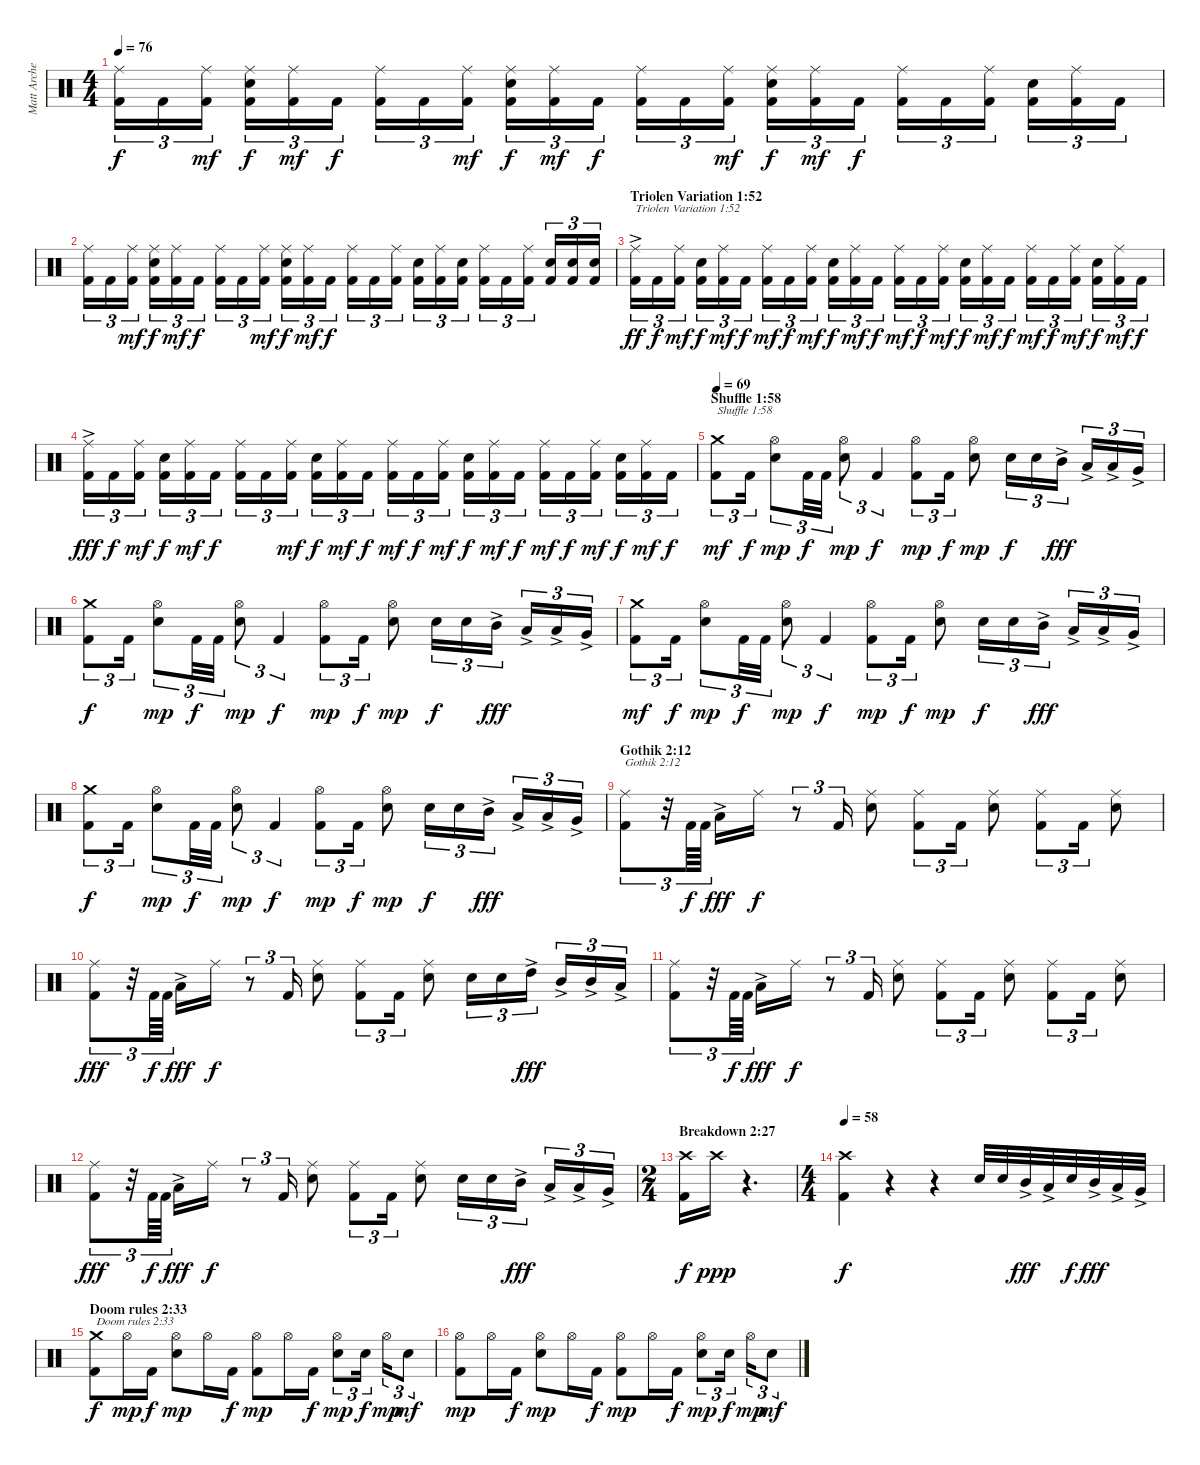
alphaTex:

\track ("Matt Archer" "Matt Arche") {instrument percussion}
\staff {score}
\articulation defaults
\ts (4 4)
\tempo 76
\clef neutral
\ks c
("Kick (hit) 2" "Ride (middle)").16{tu (3 2) dy f} "Kick (hit) 2".16{tu (3 2)} ("Kick (hit) 2" "Ride (middle)").16{tu (3 2) dy mf} ("Kick (hit) 2" "Electric Snare (hit)" "Ride (middle)").16{tu (3 2) dy f} ("Kick (hit) 2" "Ride (middle)").16{tu (3 2) dy mf} "Kick (hit) 2".16{tu (3 2) dy f} ("Kick (hit) 2" "Ride (middle)").16{tu (3 2)} "Kick (hit) 2".16{tu (3 2)} ("Kick (hit) 2" "Ride (middle)").16{tu (3 2) dy mf} ("Kick (hit) 2" "Electric Snare (hit)" "Ride (middle)").16{tu (3 2) dy f} ("Kick (hit) 2" "Ride (middle)").16{tu (3 2) dy mf} "Kick (hit) 2".16{tu (3 2) dy f} ("Kick (hit) 2" "Ride (middle)").16{tu (3 2)} "Kick (hit) 2".16{tu (3 2)} ("Kick (hit) 2" "Ride (middle)").16{tu (3 2) dy mf} ("Kick (hit) 2" "Electric Snare (hit)" "Ride (middle)").16{tu (3 2) dy f} ("Kick (hit) 2" "Ride (middle)").16{tu (3 2) dy mf} "Kick (hit) 2".16{tu (3 2) dy f} ("Kick (hit) 2" "Ride (middle)").16{tu (3 2)} "Kick (hit) 2".16{tu (3 2)} ("Kick (hit) 2" "Ride (middle)").16{tu (3 2)} ("Kick (hit) 2" "Electric Snare (hit)").16{tu (3 2)} ("Kick (hit) 2" "Ride (middle)").16{tu (3 2)} "Kick (hit) 2".16{tu (3 2)} |
("Kick (hit) 2" "Ride (middle)").16{tu (3 2)} "Kick (hit) 2".16{tu (3 2)} ("Kick (hit) 2" "Ride (middle)").16{tu (3 2) dy mf} ("Kick (hit) 2" "Electric Snare (hit)" "Ride (middle)").16{tu (3 2) dy f} ("Kick (hit) 2" "Ride (middle)").16{tu (3 2) dy mf} "Kick (hit) 2".16{tu (3 2) dy f} ("Kick (hit) 2" "Ride (middle)").16{tu (3 2)} "Kick (hit) 2".16{tu (3 2)} ("Kick (hit) 2" "Ride (middle)").16{tu (3 2) dy mf} ("Kick (hit) 2" "Electric Snare (hit)" "Ride (middle)").16{tu (3 2) dy f} ("Kick (hit) 2" "Ride (middle)").16{tu (3 2) dy mf} "Kick (hit) 2".16{tu (3 2) dy f} ("Kick (hit) 2" "Ride (middle)").16{tu (3 2)} "Kick (hit) 2".16{tu (3 2)} ("Kick (hit) 2" "Ride (middle)").16{tu (3 2)} ("Kick (hit) 2" "Electric Snare (hit)").16{tu (3 2)} ("Kick (hit) 2" "Ride (middle)").16{tu (3 2)} ("Kick (hit) 2" "Electric Snare (hit)").16{tu (3 2)} ("Kick (hit) 2" "Ride (middle)").16{tu (3 2)} "Kick (hit) 2".16{tu (3 2)} ("Kick (hit) 2" "Ride (middle)").16{tu (3 2)} ("Kick (hit) 2" "Electric Snare (hit)").16{tu (3 2)} ("Kick (hit) 2" "Electric Snare (hit)").16{tu (3 2)} ("Kick (hit) 2" "Electric Snare (hit)").16{tu (3 2)} |
\section ("" "Triolen Variation 1:52")
("Kick (hit) 2" "Ride (middle)"{ac}).16{tu (3 2) txt "Triolen Variation 1:52" dy ff} "Kick (hit) 2".16{tu (3 2) dy f} ("Kick (hit) 2" "Ride (middle)").16{tu (3 2) dy mf} ("Kick (hit) 2" "Electric Snare (hit)").16{tu (3 2) dy f} ("Kick (hit) 2" "Ride (middle)").16{tu (3 2) dy mf} "Kick (hit) 2".16{tu (3 2) dy f} ("Kick (hit) 2" "Ride (middle)").16{tu (3 2) dy mf} "Kick (hit) 2".16{tu (3 2) dy f} ("Kick (hit) 2" "Ride (middle)").16{tu (3 2) dy mf} ("Kick (hit) 2" "Electric Snare (hit)").16{tu (3 2) dy f} ("Kick (hit) 2" "Ride (middle)").16{tu (3 2) dy mf} "Kick (hit) 2".16{tu (3 2) dy f} ("Kick (hit) 2" "Ride (middle)").16{tu (3 2) dy mf} "Kick (hit) 2".16{tu (3 2) dy f} ("Kick (hit) 2" "Ride (middle)").16{tu (3 2) dy mf} ("Kick (hit) 2" "Electric Snare (hit)").16{tu (3 2) dy f} ("Kick (hit) 2" "Ride (middle)").16{tu (3 2) dy mf} "Kick (hit) 2".16{tu (3 2) dy f} ("Kick (hit) 2" "Ride (middle)").16{tu (3 2) dy mf} "Kick (hit) 2".16{tu (3 2) dy f} ("Kick (hit) 2" "Ride (middle)").16{tu (3 2) dy mf} ("Kick (hit) 2" "Electric Snare (hit)").16{tu (3 2) dy f} ("Kick (hit) 2" "Ride (middle)").16{tu (3 2) dy mf} "Kick (hit) 2".16{tu (3 2) dy f} |
("Kick (hit) 2" "Ride (middle)"{ac}).16{tu (3 2) dy fff} "Kick (hit) 2".16{tu (3 2) dy f} ("Kick (hit) 2" "Ride (middle)").16{tu (3 2) dy mf} ("Kick (hit) 2" "Electric Snare (hit)").16{tu (3 2) dy f} ("Kick (hit) 2" "Ride (middle)").16{tu (3 2) dy mf} "Kick (hit) 2".16{tu (3 2) dy f} ("Kick (hit) 2" "Ride (middle)").16{tu (3 2)} "Kick (hit) 2".16{tu (3 2)} ("Kick (hit) 2" "Ride (middle)").16{tu (3 2) dy mf} ("Kick (hit) 2" "Electric Snare (hit)").16{tu (3 2) dy f} ("Kick (hit) 2" "Ride (middle)").16{tu (3 2) dy mf} "Kick (hit) 2".16{tu (3 2) dy f} ("Kick (hit) 2" "Ride (middle)").16{tu (3 2) dy mf} "Kick (hit) 2".16{tu (3 2) dy f} ("Kick (hit) 2" "Ride (middle)").16{tu (3 2) dy mf} ("Kick (hit) 2" "Electric Snare (hit)").16{tu (3 2) dy f} ("Kick (hit) 2" "Ride (middle)").16{tu (3 2) dy mf} "Kick (hit) 2".16{tu (3 2) dy f} ("Kick (hit) 2" "Ride (middle)").16{tu (3 2) dy mf} "Kick (hit) 2".16{tu (3 2) dy f} ("Kick (hit) 2" "Ride (middle)").16{tu (3 2) dy mf} ("Kick (hit) 2" "Electric Snare (hit)").16{tu (3 2) dy f} ("Kick (hit) 2" "Ride (middle)").16{tu (3 2) dy mf} "Kick (hit) 2".16{tu (3 2) dy f} |
\section ("" "Shuffle 1:58")
\tempo 69
("Kick (hit) 2" "Crash medium (hit)").8{tu (3 2) txt "Shuffle 1:58" dy mf} "Kick (hit) 2".16{tu (3 2) dy f} ("Electric Snare (hit)" "Hi-Hat (open)").8{tu (3 2) dy mp} "Kick (hit) 2".32{tu (3 2) dy f} "Kick (hit) 2".32{tu (3 2)} ("Electric Snare (hit)" "Hi-Hat (open)").8{tu (3 2) dy mp} "Kick (hit) 2".4{tu (3 2) dy f} ("Kick (hit) 2" "Hi-Hat (open)").8{tu (3 2) dy mp} "Kick (hit) 2".16{tu (3 2) dy f} ("Electric Snare (hit)" "Hi-Hat (open)").8{dy mp} "Electric Snare (hit)".16{tu (3 2) dy f} "Electric Snare (hit)".16{tu (3 2)} "Mid Tom (hit)"{ac}.16{tu (3 2) dy fff} "Low Tom (hit)"{ac}.16{tu (3 2)} "Low Tom (hit)"{ac}.16{tu (3 2)} "Very Low Tom (hit)"{ac}.16{tu (3 2)} |
("Kick (hit) 2" "Crash medium (hit)").8{tu (3 2) dy f} "Kick (hit) 2".16{tu (3 2)} ("Electric Snare (hit)" "Hi-Hat (open)").8{tu (3 2) dy mp} "Kick (hit) 2".32{tu (3 2) dy f} "Kick (hit) 2".32{tu (3 2)} ("Electric Snare (hit)" "Hi-Hat (open)").8{tu (3 2) dy mp} "Kick (hit) 2".4{tu (3 2) dy f} ("Kick (hit) 2" "Hi-Hat (open)").8{tu (3 2) dy mp} "Kick (hit) 2".16{tu (3 2) dy f} ("Electric Snare (hit)" "Hi-Hat (open)").8{dy mp} "Electric Snare (hit)".16{tu (3 2) dy f} "Electric Snare (hit)".16{tu (3 2)} "Mid Tom (hit)"{ac}.16{tu (3 2) dy fff} "Low Tom (hit)"{ac}.16{tu (3 2)} "Low Tom (hit)"{ac}.16{tu (3 2)} "Very Low Tom (hit)"{ac}.16{tu (3 2)} |
("Kick (hit) 2" "Crash medium (hit)").8{tu (3 2) dy mf} "Kick (hit) 2".16{tu (3 2) dy f} ("Electric Snare (hit)" "Hi-Hat (open)").8{tu (3 2) dy mp} "Kick (hit) 2".32{tu (3 2) dy f} "Kick (hit) 2".32{tu (3 2)} ("Electric Snare (hit)" "Hi-Hat (open)").8{tu (3 2) dy mp} "Kick (hit) 2".4{tu (3 2) dy f} ("Kick (hit) 2" "Hi-Hat (open)").8{tu (3 2) dy mp} "Kick (hit) 2".16{tu (3 2) dy f} ("Electric Snare (hit)" "Hi-Hat (open)").8{dy mp} "Electric Snare (hit)".16{tu (3 2) dy f} "Electric Snare (hit)".16{tu (3 2)} "Mid Tom (hit)"{ac}.16{tu (3 2) dy fff} "Low Tom (hit)"{ac}.16{tu (3 2)} "Low Tom (hit)"{ac}.16{tu (3 2)} "Very Low Tom (hit)"{ac}.16{tu (3 2)} |
("Kick (hit) 2" "Crash medium (hit)").8{tu (3 2) dy f} "Kick (hit) 2".16{tu (3 2)} ("Electric Snare (hit)" "Hi-Hat (open)").8{tu (3 2) dy mp} "Kick (hit) 2".32{tu (3 2) dy f} "Kick (hit) 2".32{tu (3 2)} ("Electric Snare (hit)" "Hi-Hat (open)").8{tu (3 2) dy mp} "Kick (hit) 2".4{tu (3 2) dy f} ("Kick (hit) 2" "Hi-Hat (open)").8{tu (3 2) dy mp} "Kick (hit) 2".16{tu (3 2) dy f} ("Electric Snare (hit)" "Hi-Hat (open)").8{dy mp} "Electric Snare (hit)".16{tu (3 2) dy f} "Electric Snare (hit)".16{tu (3 2)} "Mid Tom (hit)"{ac}.16{tu (3 2) dy fff} "Low Tom (hit)"{ac}.16{tu (3 2)} "Low Tom (hit)"{ac}.16{tu (3 2)} "Very Low Tom (hit)"{ac}.16{tu (3 2)} |
\section ("" "Gothik 2:12")
("Kick (hit) 2" "Ride (middle)").8{tu (3 2) txt "Gothik 2:12"} r.32{tu (3 2)} "Kick (hit) 2".64{tu (3 2) dy f} "Kick (hit) 2".64{tu (3 2)} "Low Tom (hit)"{ac}.16{dy fff} "Ride (middle)".16{dy f} r.8{tu (3 2)} "Kick (hit) 2".16{tu (3 2)} ("Electric Snare (hit)" "Ride (middle)").8 ("Kick (hit) 2" "Ride (middle)").8{tu (3 2)} "Kick (hit) 2".16{tu (3 2)} ("Electric Snare (hit)" "Ride (middle)").8 ("Kick (hit) 2" "Ride (middle)").8{tu (3 2)} "Kick (hit) 2".16{tu (3 2)} ("Electric Snare (hit)" "Ride (middle)").8 |
("Kick (hit) 2" "Ride (middle)").8{tu (3 2) dy fff} r.32{tu (3 2)} "Kick (hit) 2".64{tu (3 2) dy f} "Kick (hit) 2".64{tu (3 2)} "Low Tom (hit)"{ac}.16{dy fff} "Ride (middle)".16{dy f} r.8{tu (3 2)} "Kick (hit) 2".16{tu (3 2)} ("Electric Snare (hit)" "Ride (middle)").8 ("Kick (hit) 2" "Ride (middle)").8{tu (3 2)} "Kick (hit) 2".16{tu (3 2)} ("Electric Snare (hit)" "Ride (middle)").8 "Electric Snare (hit)".16{tu (3 2)} "Electric Snare (hit)".16{tu (3 2)} "High Tom (hit)"{ac}.16{tu (3 2) dy fff} "Mid Tom (hit)"{ac}.16{tu (3 2)} "Mid Tom (hit)"{ac}.16{tu (3 2)} "Low Tom (hit)"{ac}.16{tu (3 2)} |
("Kick (hit) 2" "Ride (middle)").8{tu (3 2)} r.32{tu (3 2)} "Kick (hit) 2".64{tu (3 2) dy f} "Kick (hit) 2".64{tu (3 2)} "Low Tom (hit)"{ac}.16{dy fff} "Ride (middle)".16{dy f} r.8{tu (3 2)} "Kick (hit) 2".16{tu (3 2)} ("Electric Snare (hit)" "Ride (middle)").8 ("Kick (hit) 2" "Ride (middle)").8{tu (3 2)} "Kick (hit) 2".16{tu (3 2)} ("Electric Snare (hit)" "Ride (middle)").8 ("Kick (hit) 2" "Ride (middle)").8{tu (3 2)} "Kick (hit) 2".16{tu (3 2)} ("Electric Snare (hit)" "Ride (middle)").8 |
("Kick (hit) 2" "Ride (middle)").8{tu (3 2) dy fff} r.32{tu (3 2)} "Kick (hit) 2".64{tu (3 2) dy f} "Kick (hit) 2".64{tu (3 2)} "Low Tom (hit)"{ac}.16{dy fff} "Ride (middle)".16{dy f} r.8{tu (3 2)} "Kick (hit) 2".16{tu (3 2)} ("Electric Snare (hit)" "Ride (middle)").8 ("Kick (hit) 2" "Ride (middle)").8{tu (3 2)} "Kick (hit) 2".16{tu (3 2)} ("Electric Snare (hit)" "Ride (middle)").8 "Electric Snare (hit)".16{tu (3 2)} "Electric Snare (hit)".16{tu (3 2)} "Mid Tom (hit)"{ac}.16{tu (3 2) dy fff} "Low Tom (hit)"{ac}.16{tu (3 2)} "Low Tom (hit)"{ac}.16{tu (3 2)} "Very Low Tom (hit)"{ac}.16{tu (3 2)} |
\ts (2 4)
\section ("" "Breakdown 2:27 ")
("Kick (hit) 2" "Crash high (hit)").16{dy f} "Crash high (hit)".16{dy ppp} r.4{d} |
\ts (4 4)
\tempo 58
("Kick (hit) 2" "Crash high (hit)").4{dy f} r.4 r.4 "Electric Snare (hit)".32 "Electric Snare (hit)".32 "Mid Tom (hit)"{ac}.32{dy fff} "Low Tom (hit)"{ac}.32 "Electric Snare (hit)".32{dy f} "Mid Tom (hit)"{ac}.32{dy fff} "Low Tom (hit)"{ac}.32 "Very Low Tom (hit)"{ac}.32 |
\section ("" "Doom rules 2:33")
("Kick (hit) 2" "Crash medium (hit)").8{txt "Doom rules 2:33" dy f} "Hi-Hat (open)".16{dy mp} "Kick (hit) 2".16{dy f} ("Electric Snare (hit)" "Hi-Hat (open)").8{dy mp} "Hi-Hat (open)".16 "Kick (hit) 2".16{dy f} ("Kick (hit) 2" "Hi-Hat (open)").8{dy mp} "Hi-Hat (open)".16 "Kick (hit) 2".16{dy f} ("Electric Snare (hit)" "Hi-Hat (open)").8{tu (3 2) dy mp} "Electric Snare (hit)".16{tu (3 2) dy f} "Hi-Hat (open)".16{tu (3 2) dy mp} "Electric Snare (hit)".8{tu (3 2) dy mf} |
("Kick (hit) 2" "Hi-Hat (open)").8{dy mp} "Hi-Hat (open)".16 "Kick (hit) 2".16{dy f} ("Electric Snare (hit)" "Hi-Hat (open)").8{dy mp} "Hi-Hat (open)".16 "Kick (hit) 2".16{dy f} ("Kick (hit) 2" "Hi-Hat (open)").8{dy mp} "Hi-Hat (open)".16 "Kick (hit) 2".16{dy f} ("Electric Snare (hit)" "Hi-Hat (open)").8{tu (3 2) dy mp} "Electric Snare (hit)".16{tu (3 2) dy f} "Hi-Hat (open)".16{tu (3 2) dy mp} "Electric Snare (hit)".8{tu (3 2) dy mf}
